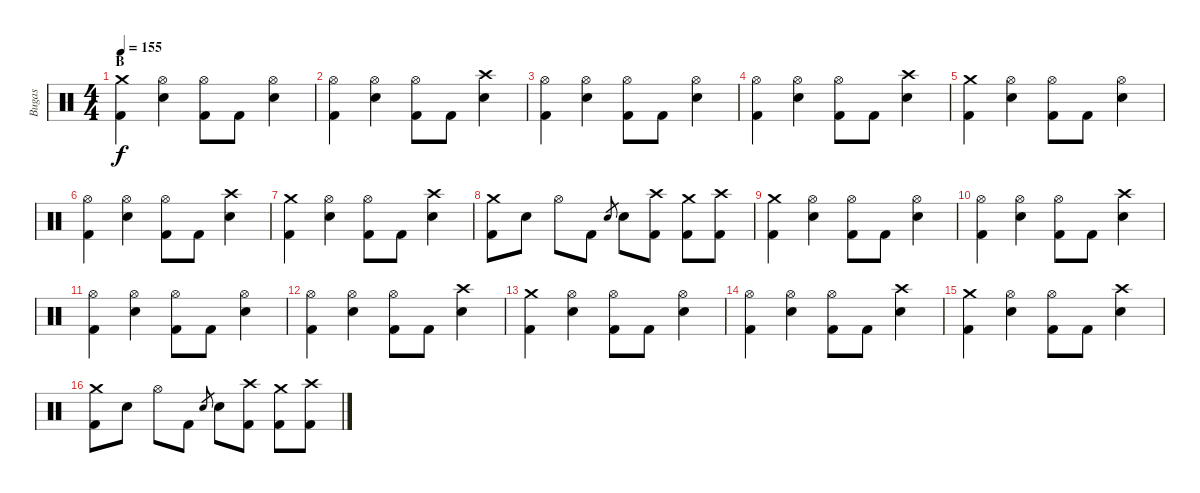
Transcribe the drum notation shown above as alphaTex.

\track ("Bugas" "Bugas") {instrument percussion}
\staff {score}
\articulation defaults
\ts (4 4)
\section ("" "B")
\tempo 155
\clef neutral
\ks c
("Crash medium (hit)" "Kick (hit) 2").4{dy f} ("Hi-Hat (open)" "Electric Snare (hit)").4 ("Hi-Hat (open)" "Kick (hit) 2").8 "Kick (hit) 2".8 ("Hi-Hat (open)" "Electric Snare (hit)").4 |
("Hi-Hat (open)" "Kick (hit) 2").4 ("Hi-Hat (open)" "Electric Snare (hit)").4 ("Hi-Hat (open)" "Kick (hit) 2").8 "Kick (hit) 2".8 ("Crash high (hit)" "Electric Snare (hit)").4 |
("Hi-Hat (open)" "Kick (hit) 2").4 ("Hi-Hat (open)" "Electric Snare (hit)").4 ("Hi-Hat (open)" "Kick (hit) 2").8 "Kick (hit) 2".8 ("Hi-Hat (open)" "Electric Snare (hit)").4 |
("Hi-Hat (open)" "Kick (hit) 2").4 ("Hi-Hat (open)" "Electric Snare (hit)").4 ("Hi-Hat (open)" "Kick (hit) 2").8 "Kick (hit) 2".8 ("Crash high (hit)" "Electric Snare (hit)").4 |
("Crash medium (hit)" "Kick (hit) 2").4 ("Hi-Hat (open)" "Electric Snare (hit)").4 ("Hi-Hat (open)" "Kick (hit) 2").8 "Kick (hit) 2".8 ("Hi-Hat (open)" "Electric Snare (hit)").4 |
("Hi-Hat (open)" "Kick (hit) 2").4 ("Hi-Hat (open)" "Electric Snare (hit)").4 ("Hi-Hat (open)" "Kick (hit) 2").8 "Kick (hit) 2".8 ("Crash high (hit)" "Electric Snare (hit)").4 |
("Crash medium (hit)" "Kick (hit) 2").4 ("Hi-Hat (open)" "Electric Snare (hit)").4 ("Hi-Hat (open)" "Kick (hit) 2").8 "Kick (hit) 2".8 ("Crash high (hit)" "Electric Snare (hit)").4 |
("Crash medium (hit)" "Kick (hit) 2").8 "Electric Snare (hit)".8 "Hi-Hat (open)".8 "Kick (hit) 2".8 "Electric Snare (hit)".8{gr} "Electric Snare (hit)".8 ("Crash high (hit)" "Kick (hit) 2").8 ("Crash medium (hit)" "Kick (hit) 2").8 ("Crash high (hit)" "Kick (hit) 2").8 |
("Crash medium (hit)" "Kick (hit) 2").4 ("Hi-Hat (open)" "Electric Snare (hit)").4 ("Hi-Hat (open)" "Kick (hit) 2").8 "Kick (hit) 2".8 ("Hi-Hat (open)" "Electric Snare (hit)").4 |
("Hi-Hat (open)" "Kick (hit) 2").4 ("Hi-Hat (open)" "Electric Snare (hit)").4 ("Hi-Hat (open)" "Kick (hit) 2").8 "Kick (hit) 2".8 ("Crash high (hit)" "Electric Snare (hit)").4 |
("Hi-Hat (open)" "Kick (hit) 2").4 ("Hi-Hat (open)" "Electric Snare (hit)").4 ("Hi-Hat (open)" "Kick (hit) 2").8 "Kick (hit) 2".8 ("Hi-Hat (open)" "Electric Snare (hit)").4 |
("Hi-Hat (open)" "Kick (hit) 2").4 ("Hi-Hat (open)" "Electric Snare (hit)").4 ("Hi-Hat (open)" "Kick (hit) 2").8 "Kick (hit) 2".8 ("Crash high (hit)" "Electric Snare (hit)").4 |
("Crash medium (hit)" "Kick (hit) 2").4 ("Hi-Hat (open)" "Electric Snare (hit)").4 ("Hi-Hat (open)" "Kick (hit) 2").8 "Kick (hit) 2".8 ("Hi-Hat (open)" "Electric Snare (hit)").4 |
("Hi-Hat (open)" "Kick (hit) 2").4 ("Hi-Hat (open)" "Electric Snare (hit)").4 ("Hi-Hat (open)" "Kick (hit) 2").8 "Kick (hit) 2".8 ("Crash high (hit)" "Electric Snare (hit)").4 |
("Crash medium (hit)" "Kick (hit) 2").4 ("Hi-Hat (open)" "Electric Snare (hit)").4 ("Hi-Hat (open)" "Kick (hit) 2").8 "Kick (hit) 2".8 ("Crash high (hit)" "Electric Snare (hit)").4 |
("Crash medium (hit)" "Kick (hit) 2").8 "Electric Snare (hit)".8 "Hi-Hat (open)".8 "Kick (hit) 2".8 "Electric Snare (hit)".8{gr} "Electric Snare (hit)".8 ("Crash high (hit)" "Kick (hit) 2").8 ("Crash medium (hit)" "Kick (hit) 2").8 ("Crash high (hit)" "Kick (hit) 2").8
